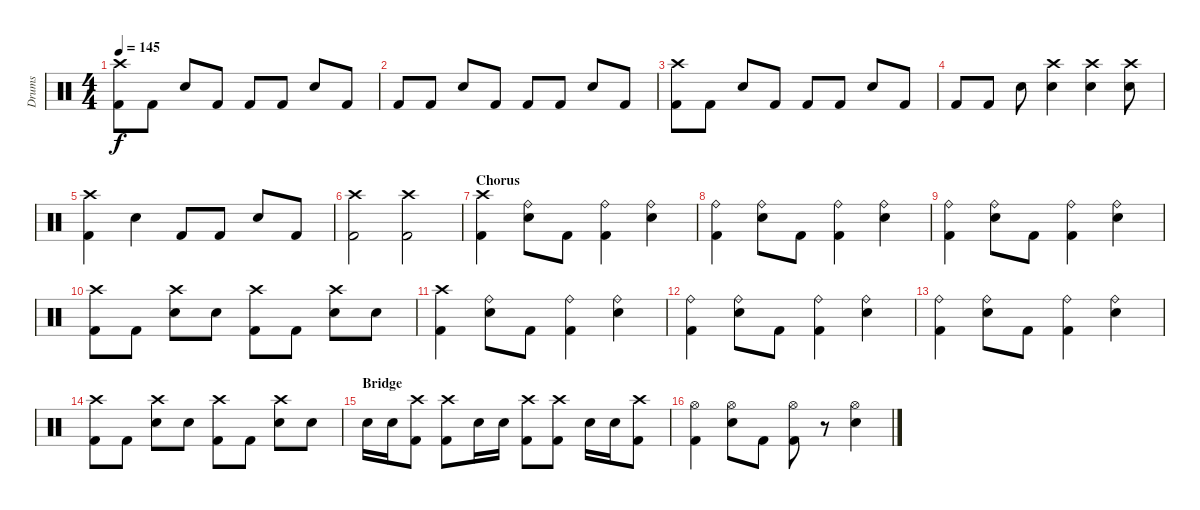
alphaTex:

\track ("Drums" "Drums") {instrument percussion}
\staff {score}
\articulation defaults
\ts (4 4)
\tempo 145
\clef neutral
\ks c
("Crash high (hit)" "Kick (hit) 2").8{dy f} "Kick (hit) 2".8 "Snare (hit) 2".8 "Kick (hit) 2".8 "Kick (hit) 2".8 "Kick (hit) 2".8 "Snare (hit) 2".8 "Kick (hit) 2".8 |
"Kick (hit) 2".8 "Kick (hit) 2".8 "Snare (hit) 2".8 "Kick (hit) 2".8 "Kick (hit) 2".8 "Kick (hit) 2".8 "Snare (hit) 2".8 "Kick (hit) 2".8 |
("Crash high (hit)" "Kick (hit) 2").8 "Kick (hit) 2".8 "Snare (hit) 2".8 "Kick (hit) 2".8 "Kick (hit) 2".8 "Kick (hit) 2".8 "Snare (hit) 2".8 "Kick (hit) 2".8 |
"Kick (hit) 2".8 "Kick (hit) 2".8 "Snare (hit) 2".8 ("Crash high (hit)" "Snare (hit) 2").4 ("Crash high (hit)" "Snare (hit) 2").4 ("Crash high (hit)" "Snare (hit) 2").8 |
("Crash high (hit)" "Kick (hit) 2").4 "Snare (hit) 2".4 "Kick (hit) 2".8 "Kick (hit) 2".8 "Snare (hit) 2".8 "Kick (hit) 2".8 |
("Crash high (hit)" "Kick (hit) 2").2 ("Crash high (hit)" "Kick (hit) 2").2 |
\section ("" "Chorus")
("Crash high (hit)" "Kick (hit) 2").4 ("Ride (bell)" "Snare (hit) 2").8 "Kick (hit) 2".8 ("Ride (bell)" "Kick (hit) 2").4 ("Ride (bell)" "Snare (hit) 2").4 |
("Ride (bell)" "Kick (hit) 2").4 ("Ride (bell)" "Snare (hit) 2").8 "Kick (hit) 2".8 ("Ride (bell)" "Kick (hit) 2").4 ("Ride (bell)" "Snare (hit) 2").4 |
("Ride (bell)" "Kick (hit) 2").4 ("Ride (bell)" "Snare (hit) 2").8 "Kick (hit) 2".8 ("Ride (bell)" "Kick (hit) 2").4 ("Ride (bell)" "Snare (hit) 2").4 |
("Crash high (hit)" "Kick (hit) 2").8 "Kick (hit) 2".8 ("Crash high (hit)" "Snare (hit) 2").8 "Snare (hit) 2".8 ("Crash high (hit)" "Kick (hit) 2").8 "Kick (hit) 2".8 ("Crash high (hit)" "Snare (hit) 2").8 "Snare (hit) 2".8 |
("Crash high (hit)" "Kick (hit) 2").4 ("Ride (bell)" "Snare (hit) 2").8 "Kick (hit) 2".8 ("Ride (bell)" "Kick (hit) 2").4 ("Ride (bell)" "Snare (hit) 2").4 |
("Ride (bell)" "Kick (hit) 2").4 ("Ride (bell)" "Snare (hit) 2").8 "Kick (hit) 2".8 ("Ride (bell)" "Kick (hit) 2").4 ("Ride (bell)" "Snare (hit) 2").4 |
("Ride (bell)" "Kick (hit) 2").4 ("Ride (bell)" "Snare (hit) 2").8 "Kick (hit) 2".8 ("Ride (bell)" "Kick (hit) 2").4 ("Ride (bell)" "Snare (hit) 2").4 |
("Crash high (hit)" "Kick (hit) 2").8 "Kick (hit) 2".8 ("Crash high (hit)" "Snare (hit) 2").8 "Snare (hit) 2".8 ("Crash high (hit)" "Kick (hit) 2").8 "Kick (hit) 2".8 ("Crash high (hit)" "Snare (hit) 2").8 "Snare (hit) 2".8 |
\section ("" "Bridge")
"Snare (hit) 2".16 "Snare (hit) 2".16 ("Crash high (hit)" "Kick (hit) 2").8 ("Crash high (hit)" "Kick (hit) 2").8 "Snare (hit) 2".16 "Snare (hit) 2".16 ("Crash high (hit)" "Kick (hit) 2").8 ("Crash high (hit)" "Kick (hit) 2").8 "Snare (hit) 2".16 "Snare (hit) 2".16 ("Crash high (hit)" "Kick (hit) 2").8 |
("Hi-Hat (open)" "Kick (hit) 2").4 ("Hi-Hat (open)" "Snare (hit) 2").8 "Kick (hit) 2".8 ("Hi-Hat (open)" "Kick (hit) 2").8 r.8 ("Hi-Hat (open)" "Snare (hit) 2").4
